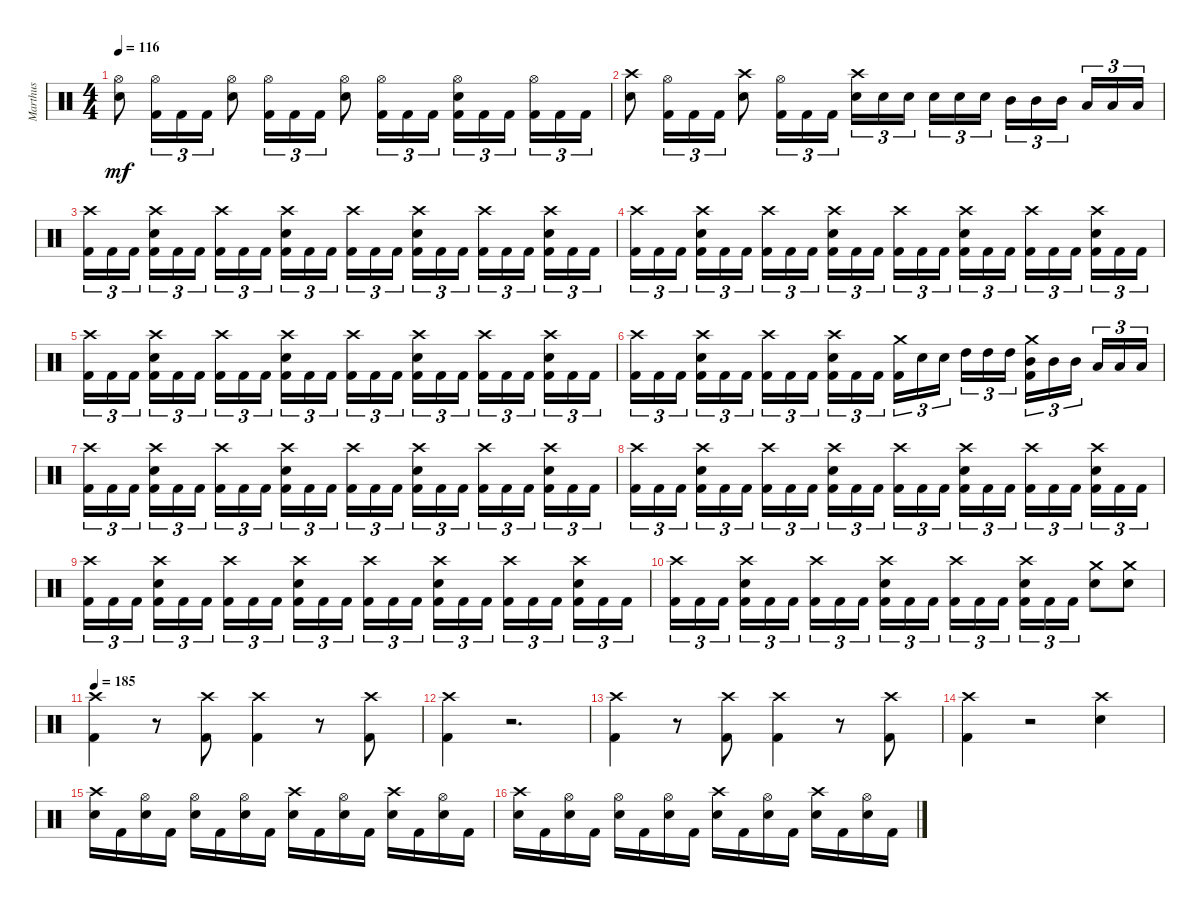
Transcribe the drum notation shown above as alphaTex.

\track ("Marthus" "Marthus") {instrument percussion}
\staff {score}
\articulation defaults
\ts (4 4)
\tempo 116
\clef neutral
\ks c
("Hi-Hat (open)" "Electric Snare (hit)").8{dy mf} ("Hi-Hat (open)" "Kick (hit) 2").16{tu (3 2)} "Kick (hit) 2".16{tu (3 2)} "Kick (hit) 2".16{tu (3 2)} ("Hi-Hat (open)" "Electric Snare (hit)").8 ("Hi-Hat (open)" "Kick (hit) 2").16{tu (3 2)} "Kick (hit) 2".16{tu (3 2)} "Kick (hit) 2".16{tu (3 2)} ("Hi-Hat (open)" "Electric Snare (hit)").8 ("Hi-Hat (open)" "Kick (hit) 2").16{tu (3 2)} "Kick (hit) 2".16{tu (3 2)} "Kick (hit) 2".16{tu (3 2)} ("Hi-Hat (open)" "Electric Snare (hit)" "Kick (hit) 2").16{tu (3 2)} "Kick (hit) 2".16{tu (3 2)} "Kick (hit) 2".16{tu (3 2) beam splitsecondary} ("Hi-Hat (open)" "Kick (hit) 2").16{tu (3 2)} "Kick (hit) 2".16{tu (3 2)} "Kick (hit) 2".16{tu (3 2)} |
("Crash high (hit)" "Electric Snare (hit)").8 ("Hi-Hat (open)" "Kick (hit) 2").16{tu (3 2)} "Kick (hit) 2".16{tu (3 2)} "Kick (hit) 2".16{tu (3 2)} ("Crash high (hit)" "Electric Snare (hit)").8 ("Hi-Hat (open)" "Kick (hit) 2").16{tu (3 2)} "Kick (hit) 2".16{tu (3 2)} "Kick (hit) 2".16{tu (3 2)} ("Crash high (hit)" "Electric Snare (hit)").16{tu (3 2)} "Electric Snare (hit)".16{tu (3 2)} "Electric Snare (hit)".16{tu (3 2) beam splitsecondary} "Electric Snare (hit)".16{tu (3 2)} "Electric Snare (hit)".16{tu (3 2)} "Electric Snare (hit)".16{tu (3 2)} "Mid Tom (hit)".16{tu (3 2)} "Mid Tom (hit)".16{tu (3 2)} "Mid Tom (hit)".16{tu (3 2) beam splitsecondary} "Low Tom (hit)".16{tu (3 2)} "Low Tom (hit)".16{tu (3 2)} "Low Tom (hit)".16{tu (3 2)} |
("Crash high (hit)" "Kick (hit) 2").16{tu (3 2)} "Kick (hit) 2".16{tu (3 2)} "Kick (hit) 2".16{tu (3 2) beam splitsecondary} ("Crash high (hit)" "Electric Snare (hit)" "Kick (hit) 2").16{tu (3 2)} "Kick (hit) 2".16{tu (3 2)} "Kick (hit) 2".16{tu (3 2)} ("Crash high (hit)" "Kick (hit) 2").16{tu (3 2)} "Kick (hit) 2".16{tu (3 2)} "Kick (hit) 2".16{tu (3 2) beam splitsecondary} ("Crash high (hit)" "Electric Snare (hit)" "Kick (hit) 2").16{tu (3 2)} "Kick (hit) 2".16{tu (3 2)} "Kick (hit) 2".16{tu (3 2)} ("Crash high (hit)" "Kick (hit) 2").16{tu (3 2)} "Kick (hit) 2".16{tu (3 2)} "Kick (hit) 2".16{tu (3 2) beam splitsecondary} ("Crash high (hit)" "Electric Snare (hit)" "Kick (hit) 2").16{tu (3 2)} "Kick (hit) 2".16{tu (3 2)} "Kick (hit) 2".16{tu (3 2)} ("Crash high (hit)" "Kick (hit) 2").16{tu (3 2)} "Kick (hit) 2".16{tu (3 2)} "Kick (hit) 2".16{tu (3 2) beam splitsecondary} ("Crash high (hit)" "Electric Snare (hit)" "Kick (hit) 2").16{tu (3 2)} "Kick (hit) 2".16{tu (3 2)} "Kick (hit) 2".16{tu (3 2)} |
("Crash high (hit)" "Kick (hit) 2").16{tu (3 2)} "Kick (hit) 2".16{tu (3 2)} "Kick (hit) 2".16{tu (3 2) beam splitsecondary} ("Crash high (hit)" "Electric Snare (hit)" "Kick (hit) 2").16{tu (3 2)} "Kick (hit) 2".16{tu (3 2)} "Kick (hit) 2".16{tu (3 2)} ("Crash high (hit)" "Kick (hit) 2").16{tu (3 2)} "Kick (hit) 2".16{tu (3 2)} "Kick (hit) 2".16{tu (3 2) beam splitsecondary} ("Crash high (hit)" "Electric Snare (hit)" "Kick (hit) 2").16{tu (3 2)} "Kick (hit) 2".16{tu (3 2)} "Kick (hit) 2".16{tu (3 2)} ("Crash high (hit)" "Kick (hit) 2").16{tu (3 2)} "Kick (hit) 2".16{tu (3 2)} "Kick (hit) 2".16{tu (3 2) beam splitsecondary} ("Crash high (hit)" "Electric Snare (hit)" "Kick (hit) 2").16{tu (3 2)} "Kick (hit) 2".16{tu (3 2)} "Kick (hit) 2".16{tu (3 2)} ("Crash high (hit)" "Kick (hit) 2").16{tu (3 2)} "Kick (hit) 2".16{tu (3 2)} "Kick (hit) 2".16{tu (3 2) beam splitsecondary} ("Crash high (hit)" "Electric Snare (hit)" "Kick (hit) 2").16{tu (3 2)} "Kick (hit) 2".16{tu (3 2)} "Kick (hit) 2".16{tu (3 2)} |
("Crash high (hit)" "Kick (hit) 2").16{tu (3 2)} "Kick (hit) 2".16{tu (3 2)} "Kick (hit) 2".16{tu (3 2) beam splitsecondary} ("Crash high (hit)" "Electric Snare (hit)" "Kick (hit) 2").16{tu (3 2)} "Kick (hit) 2".16{tu (3 2)} "Kick (hit) 2".16{tu (3 2)} ("Crash high (hit)" "Kick (hit) 2").16{tu (3 2)} "Kick (hit) 2".16{tu (3 2)} "Kick (hit) 2".16{tu (3 2) beam splitsecondary} ("Crash high (hit)" "Electric Snare (hit)" "Kick (hit) 2").16{tu (3 2)} "Kick (hit) 2".16{tu (3 2)} "Kick (hit) 2".16{tu (3 2)} ("Crash high (hit)" "Kick (hit) 2").16{tu (3 2)} "Kick (hit) 2".16{tu (3 2)} "Kick (hit) 2".16{tu (3 2) beam splitsecondary} ("Crash high (hit)" "Electric Snare (hit)" "Kick (hit) 2").16{tu (3 2)} "Kick (hit) 2".16{tu (3 2)} "Kick (hit) 2".16{tu (3 2)} ("Crash high (hit)" "Kick (hit) 2").16{tu (3 2)} "Kick (hit) 2".16{tu (3 2)} "Kick (hit) 2".16{tu (3 2) beam splitsecondary} ("Crash high (hit)" "Electric Snare (hit)" "Kick (hit) 2").16{tu (3 2)} "Kick (hit) 2".16{tu (3 2)} "Kick (hit) 2".16{tu (3 2)} |
("Crash high (hit)" "Kick (hit) 2").16{tu (3 2)} "Kick (hit) 2".16{tu (3 2)} "Kick (hit) 2".16{tu (3 2) beam splitsecondary} ("Crash high (hit)" "Electric Snare (hit)" "Kick (hit) 2").16{tu (3 2)} "Kick (hit) 2".16{tu (3 2)} "Kick (hit) 2".16{tu (3 2)} ("Crash high (hit)" "Kick (hit) 2").16{tu (3 2)} "Kick (hit) 2".16{tu (3 2)} "Kick (hit) 2".16{tu (3 2) beam splitsecondary} ("Crash high (hit)" "Electric Snare (hit)" "Kick (hit) 2").16{tu (3 2)} "Kick (hit) 2".16{tu (3 2)} "Kick (hit) 2".16{tu (3 2)} ("Crash medium (hit)" "Kick (hit) 2").16{tu (3 2)} "Electric Snare (hit)".16{tu (3 2)} "Electric Snare (hit)".16{tu (3 2) beam splitsecondary} "High Tom (hit)".16{tu (3 2)} "High Tom (hit)".16{tu (3 2)} "High Tom (hit)".16{tu (3 2)} ("Crash medium (hit)" "Mid Tom (hit)" "Kick (hit) 2").16{tu (3 2)} "Mid Tom (hit)".16{tu (3 2)} "Mid Tom (hit)".16{tu (3 2) beam splitsecondary} "Low Tom (hit)".16{tu (3 2)} "Low Tom (hit)".16{tu (3 2)} "Low Tom (hit)".16{tu (3 2)} |
("Crash high (hit)" "Kick (hit) 2").16{tu (3 2)} "Kick (hit) 2".16{tu (3 2)} "Kick (hit) 2".16{tu (3 2) beam splitsecondary} ("Crash high (hit)" "Electric Snare (hit)" "Kick (hit) 2").16{tu (3 2)} "Kick (hit) 2".16{tu (3 2)} "Kick (hit) 2".16{tu (3 2)} ("Crash high (hit)" "Kick (hit) 2").16{tu (3 2)} "Kick (hit) 2".16{tu (3 2)} "Kick (hit) 2".16{tu (3 2) beam splitsecondary} ("Crash high (hit)" "Electric Snare (hit)" "Kick (hit) 2").16{tu (3 2)} "Kick (hit) 2".16{tu (3 2)} "Kick (hit) 2".16{tu (3 2)} ("Crash high (hit)" "Kick (hit) 2").16{tu (3 2)} "Kick (hit) 2".16{tu (3 2)} "Kick (hit) 2".16{tu (3 2) beam splitsecondary} ("Crash high (hit)" "Electric Snare (hit)" "Kick (hit) 2").16{tu (3 2)} "Kick (hit) 2".16{tu (3 2)} "Kick (hit) 2".16{tu (3 2)} ("Crash high (hit)" "Kick (hit) 2").16{tu (3 2)} "Kick (hit) 2".16{tu (3 2)} "Kick (hit) 2".16{tu (3 2) beam splitsecondary} ("Crash high (hit)" "Electric Snare (hit)" "Kick (hit) 2").16{tu (3 2)} "Kick (hit) 2".16{tu (3 2)} "Kick (hit) 2".16{tu (3 2)} |
("Crash high (hit)" "Kick (hit) 2").16{tu (3 2)} "Kick (hit) 2".16{tu (3 2)} "Kick (hit) 2".16{tu (3 2) beam splitsecondary} ("Crash high (hit)" "Electric Snare (hit)" "Kick (hit) 2").16{tu (3 2)} "Kick (hit) 2".16{tu (3 2)} "Kick (hit) 2".16{tu (3 2)} ("Crash high (hit)" "Kick (hit) 2").16{tu (3 2)} "Kick (hit) 2".16{tu (3 2)} "Kick (hit) 2".16{tu (3 2) beam splitsecondary} ("Crash high (hit)" "Electric Snare (hit)" "Kick (hit) 2").16{tu (3 2)} "Kick (hit) 2".16{tu (3 2)} "Kick (hit) 2".16{tu (3 2)} ("Crash high (hit)" "Kick (hit) 2").16{tu (3 2)} "Kick (hit) 2".16{tu (3 2)} "Kick (hit) 2".16{tu (3 2) beam splitsecondary} ("Crash high (hit)" "Electric Snare (hit)" "Kick (hit) 2").16{tu (3 2)} "Kick (hit) 2".16{tu (3 2)} "Kick (hit) 2".16{tu (3 2)} ("Crash high (hit)" "Kick (hit) 2").16{tu (3 2)} "Kick (hit) 2".16{tu (3 2)} "Kick (hit) 2".16{tu (3 2) beam splitsecondary} ("Crash high (hit)" "Electric Snare (hit)" "Kick (hit) 2").16{tu (3 2)} "Kick (hit) 2".16{tu (3 2)} "Kick (hit) 2".16{tu (3 2)} |
("Crash high (hit)" "Kick (hit) 2").16{tu (3 2)} "Kick (hit) 2".16{tu (3 2)} "Kick (hit) 2".16{tu (3 2) beam splitsecondary} ("Crash high (hit)" "Electric Snare (hit)" "Kick (hit) 2").16{tu (3 2)} "Kick (hit) 2".16{tu (3 2)} "Kick (hit) 2".16{tu (3 2)} ("Crash high (hit)" "Kick (hit) 2").16{tu (3 2)} "Kick (hit) 2".16{tu (3 2)} "Kick (hit) 2".16{tu (3 2) beam splitsecondary} ("Crash high (hit)" "Electric Snare (hit)" "Kick (hit) 2").16{tu (3 2)} "Kick (hit) 2".16{tu (3 2)} "Kick (hit) 2".16{tu (3 2)} ("Crash high (hit)" "Kick (hit) 2").16{tu (3 2)} "Kick (hit) 2".16{tu (3 2)} "Kick (hit) 2".16{tu (3 2) beam splitsecondary} ("Crash high (hit)" "Electric Snare (hit)" "Kick (hit) 2").16{tu (3 2)} "Kick (hit) 2".16{tu (3 2)} "Kick (hit) 2".16{tu (3 2)} ("Crash high (hit)" "Kick (hit) 2").16{tu (3 2)} "Kick (hit) 2".16{tu (3 2)} "Kick (hit) 2".16{tu (3 2) beam splitsecondary} ("Crash high (hit)" "Electric Snare (hit)" "Kick (hit) 2").16{tu (3 2)} "Kick (hit) 2".16{tu (3 2)} "Kick (hit) 2".16{tu (3 2)} |
("Crash high (hit)" "Kick (hit) 2").16{tu (3 2)} "Kick (hit) 2".16{tu (3 2)} "Kick (hit) 2".16{tu (3 2) beam splitsecondary} ("Crash high (hit)" "Electric Snare (hit)" "Kick (hit) 2").16{tu (3 2)} "Kick (hit) 2".16{tu (3 2)} "Kick (hit) 2".16{tu (3 2)} ("Crash high (hit)" "Kick (hit) 2").16{tu (3 2)} "Kick (hit) 2".16{tu (3 2)} "Kick (hit) 2".16{tu (3 2) beam splitsecondary} ("Crash high (hit)" "Electric Snare (hit)" "Kick (hit) 2").16{tu (3 2)} "Kick (hit) 2".16{tu (3 2)} "Kick (hit) 2".16{tu (3 2)} ("Crash high (hit)" "Kick (hit) 2").16{tu (3 2)} "Kick (hit) 2".16{tu (3 2)} "Kick (hit) 2".16{tu (3 2) beam splitsecondary} ("Crash high (hit)" "Electric Snare (hit)" "Kick (hit) 2").16{tu (3 2)} "Kick (hit) 2".16{tu (3 2)} "Kick (hit) 2".16{tu (3 2)} ("Crash medium (hit)" "Electric Snare (hit)").8 ("Crash medium (hit)" "Electric Snare (hit)").8 |
\tempo 185
("Crash high (hit)" "Kick (hit) 2").4 r.8 ("Crash high (hit)" "Kick (hit) 2").8 ("Crash high (hit)" "Kick (hit) 2").4 r.8 ("Crash high (hit)" "Kick (hit) 2").8 |
("Crash high (hit)" "Kick (hit) 2").4 r.2{d} |
("Crash high (hit)" "Kick (hit) 2").4 r.8 ("Crash high (hit)" "Kick (hit) 2").8 ("Crash high (hit)" "Kick (hit) 2").4 r.8 ("Crash high (hit)" "Kick (hit) 2").8 |
("Crash high (hit)" "Kick (hit) 2").4 r.2 ("Crash high (hit)" "Electric Snare (hit)").4 |
("Crash high (hit)" "Electric Snare (hit)").16 "Kick (hit) 2".16 ("Hi-Hat (open)" "Electric Snare (hit)").16 "Kick (hit) 2".16 ("Hi-Hat (open)" "Electric Snare (hit)").16 "Kick (hit) 2".16 ("Hi-Hat (open)" "Electric Snare (hit)").16 "Kick (hit) 2".16 ("Crash high (hit)" "Electric Snare (hit)").16 "Kick (hit) 2".16 ("Hi-Hat (open)" "Electric Snare (hit)").16 "Kick (hit) 2".16 ("Crash high (hit)" "Electric Snare (hit)").16 "Kick (hit) 2".16 ("Hi-Hat (open)" "Electric Snare (hit)").16 "Kick (hit) 2".16 |
("Crash high (hit)" "Electric Snare (hit)").16 "Kick (hit) 2".16 ("Hi-Hat (open)" "Electric Snare (hit)").16 "Kick (hit) 2".16 ("Hi-Hat (open)" "Electric Snare (hit)").16 "Kick (hit) 2".16 ("Hi-Hat (open)" "Electric Snare (hit)").16 "Kick (hit) 2".16 ("Crash high (hit)" "Electric Snare (hit)").16 "Kick (hit) 2".16 ("Hi-Hat (open)" "Electric Snare (hit)").16 "Kick (hit) 2".16 ("Crash high (hit)" "Electric Snare (hit)").16 "Kick (hit) 2".16 ("Hi-Hat (open)" "Electric Snare (hit)").16 "Kick (hit) 2".16
